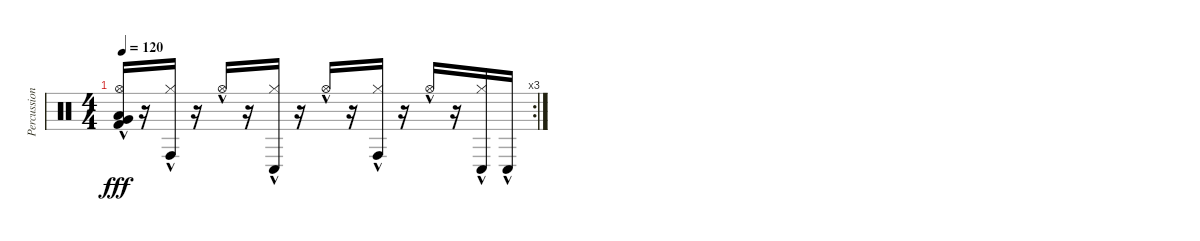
\track ("Percussion" "Percussion") {instrument percussion}
\staff {score}
\articulation defaults
\rc 3
\ts (4 4)
\tempo 120
\clef neutral
\ks c
("Hi-Hat (open)"{hac} "Very Low Tom (hit)"{hac} "Low Floor Tom (hit)"{hac} "Kick (hit) 2"{hac}).16{dy fff} r.16 ("Hi-Hat (closed)"{hac} "Conga high (hit)"{hac}).16 r.16 "Hi-Hat (open)"{hac}.16 r.16 ("Hi-Hat (closed)"{hac} "Conga low (hit)"{hac}).16 r.16 "Hi-Hat (open)"{hac}.16 r.16 ("Hi-Hat (closed)"{hac} "Conga high (hit)"{hac}).16 r.16 "Hi-Hat (open)"{hac}.16 r.16 ("Hi-Hat (closed)"{hac} "Conga low (hit)"{hac}).16 "Conga low (hit)"{hac}.16
